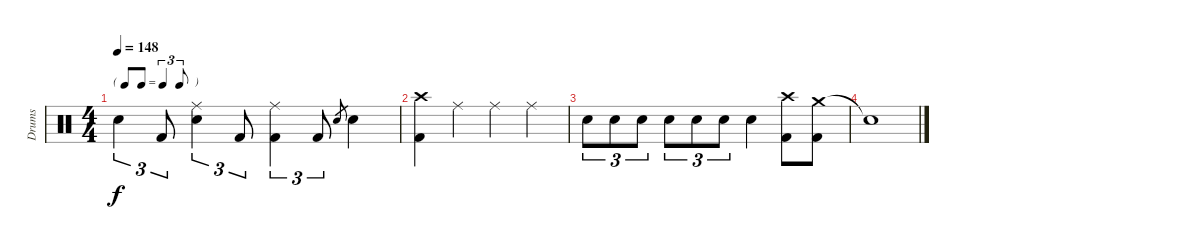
\track ("Drums" "Drums") {instrument percussion}
\staff {score}
\articulation defaults
\ts (4 4)
\tf triplet8th
\tempo 148
\clef neutral
\ks c "Snare (hit)"{t}.4{tu (3 2) dy f} "Kick (hit) 2".8{tu (3 2)}
("Ride (middle)" "Snare (hit) 2").4{tu (3 2)} "Kick (hit) 2".8{tu (3 2)} ("Ride (middle)" "Kick (hit) 2").4{tu (3 2)} "Kick (hit) 2".8{tu (3 2)} "Snare (hit) 2".8{gr} "Snare (hit) 2".4 |
("Crash high (hit)" "Kick (hit) 2").4 "Ride (middle)".4 "Ride (middle)".4 "Ride (middle)".4 |
"Snare (hit) 2".8{tu (3 2)} "Snare (hit) 2".8{tu (3 2)} "Snare (hit) 2".8{tu (3 2)} "Snare (hit) 2".8{tu (3 2)} "Snare (hit) 2".8{tu (3 2)} "Snare (hit) 2".8{tu (3 2)} "Snare (hit) 2".4 ("Crash high (hit)" "Kick (hit) 2").8 ("Crash medium (hit)" "Kick (hit) 2").8 |
"Snare (hit)"{t}.1
